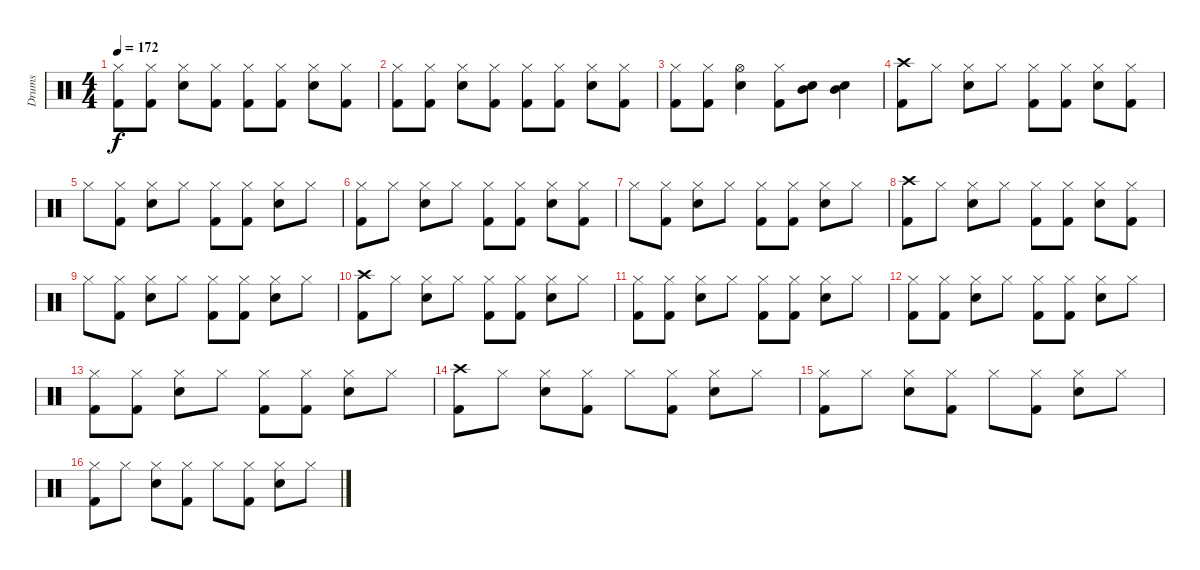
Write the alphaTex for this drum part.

\track ("Drums" "Drums") {instrument percussion}
\staff {score}
\articulation defaults
\ts (4 4)
\tempo 172
\clef neutral
\ks c
("Hi-Hat (closed)" "Kick (hit) 2").8{dy f} ("Hi-Hat (closed)" "Kick (hit) 2").8 ("Hi-Hat (closed)" "Electric Snare (hit)").8 ("Hi-Hat (closed)" "Kick (hit) 2").8 ("Hi-Hat (closed)" "Kick (hit) 2").8 ("Hi-Hat (closed)" "Kick (hit) 2").8 ("Hi-Hat (closed)" "Electric Snare (hit)").8 ("Hi-Hat (closed)" "Kick (hit) 2").8 |
("Hi-Hat (closed)" "Kick (hit) 2").8 ("Hi-Hat (closed)" "Kick (hit) 2").8 ("Hi-Hat (closed)" "Electric Snare (hit)").8 ("Hi-Hat (closed)" "Kick (hit) 2").8 ("Hi-Hat (closed)" "Kick (hit) 2").8 ("Hi-Hat (closed)" "Kick (hit) 2").8 ("Hi-Hat (closed)" "Electric Snare (hit)").8 ("Hi-Hat (closed)" "Kick (hit) 2").8 |
("Hi-Hat (closed)" "Kick (hit) 2").8 ("Hi-Hat (closed)" "Kick (hit) 2").8 ("Hi-Hat (open)" "Electric Snare (hit)").4 ("Hi-Hat (closed)" "Kick (hit) 2").8 ("Mid Tom (hit)" "Electric Snare (hit)").8 ("Mid Tom (hit)" "Electric Snare (hit)").4 |
("Crash high (hit)" "Kick (hit) 2").8 "Hi-Hat (closed)".8 ("Hi-Hat (closed)" "Electric Snare (hit)").8 "Hi-Hat (closed)".8 ("Hi-Hat (closed)" "Kick (hit) 2").8 ("Hi-Hat (closed)" "Kick (hit) 2").8 ("Hi-Hat (closed)" "Electric Snare (hit)").8 ("Hi-Hat (closed)" "Kick (hit) 2").8 |
"Hi-Hat (closed)".8 ("Hi-Hat (closed)" "Kick (hit) 2").8 ("Hi-Hat (closed)" "Electric Snare (hit)").8 "Hi-Hat (closed)".8 ("Hi-Hat (closed)" "Kick (hit) 2").8 ("Hi-Hat (closed)" "Kick (hit) 2").8 ("Hi-Hat (closed)" "Electric Snare (hit)").8 "Hi-Hat (closed)".8 |
("Hi-Hat (closed)" "Kick (hit) 2").8 "Hi-Hat (closed)".8 ("Hi-Hat (closed)" "Electric Snare (hit)").8 "Hi-Hat (closed)".8 ("Hi-Hat (closed)" "Kick (hit) 2").8 ("Hi-Hat (closed)" "Kick (hit) 2").8 ("Hi-Hat (closed)" "Electric Snare (hit)").8 ("Hi-Hat (closed)" "Kick (hit) 2").8 |
"Hi-Hat (closed)".8 ("Hi-Hat (closed)" "Kick (hit) 2").8 ("Hi-Hat (closed)" "Electric Snare (hit)").8 "Hi-Hat (closed)".8 ("Hi-Hat (closed)" "Kick (hit) 2").8 ("Hi-Hat (closed)" "Kick (hit) 2").8 ("Hi-Hat (closed)" "Electric Snare (hit)").8 "Hi-Hat (closed)".8 |
("Crash high (hit)" "Kick (hit) 2").8 "Hi-Hat (closed)".8 ("Hi-Hat (closed)" "Electric Snare (hit)").8 "Hi-Hat (closed)".8 ("Hi-Hat (closed)" "Kick (hit) 2").8 ("Hi-Hat (closed)" "Kick (hit) 2").8 ("Hi-Hat (closed)" "Electric Snare (hit)").8 ("Hi-Hat (closed)" "Kick (hit) 2").8 |
"Hi-Hat (closed)".8 ("Hi-Hat (closed)" "Kick (hit) 2").8 ("Hi-Hat (closed)" "Electric Snare (hit)").8 "Hi-Hat (closed)".8 ("Hi-Hat (closed)" "Kick (hit) 2").8 ("Hi-Hat (closed)" "Kick (hit) 2").8 ("Hi-Hat (closed)" "Electric Snare (hit)").8 "Hi-Hat (closed)".8 |
("Crash high (hit)" "Kick (hit) 2").8 "Hi-Hat (closed)".8 ("Hi-Hat (closed)" "Electric Snare (hit)").8 "Hi-Hat (closed)".8 ("Hi-Hat (closed)" "Kick (hit) 2").8 ("Hi-Hat (closed)" "Kick (hit) 2").8 ("Hi-Hat (closed)" "Electric Snare (hit)").8 "Hi-Hat (closed)".8 |
("Hi-Hat (closed)" "Kick (hit) 2").8 ("Hi-Hat (closed)" "Kick (hit) 2").8 ("Hi-Hat (closed)" "Electric Snare (hit)").8 "Hi-Hat (closed)".8 ("Hi-Hat (closed)" "Kick (hit) 2").8 ("Hi-Hat (closed)" "Kick (hit) 2").8 ("Hi-Hat (closed)" "Electric Snare (hit)").8 "Hi-Hat (closed)".8 |
("Hi-Hat (closed)" "Kick (hit) 2").8 ("Hi-Hat (closed)" "Kick (hit) 2").8 ("Hi-Hat (closed)" "Electric Snare (hit)").8 "Hi-Hat (closed)".8 ("Hi-Hat (closed)" "Kick (hit) 2").8 ("Hi-Hat (closed)" "Kick (hit) 2").8 ("Hi-Hat (closed)" "Electric Snare (hit)").8 "Hi-Hat (closed)".8 |
("Hi-Hat (closed)" "Kick (hit) 2").8 ("Hi-Hat (closed)" "Kick (hit) 2").8 ("Hi-Hat (closed)" "Electric Snare (hit)").8 "Hi-Hat (closed)".8 ("Hi-Hat (closed)" "Kick (hit) 2").8 ("Hi-Hat (closed)" "Kick (hit) 2").8 ("Hi-Hat (closed)" "Electric Snare (hit)").8 "Hi-Hat (closed)".8 |
("Crash high (hit)" "Kick (hit) 2").8 "Hi-Hat (closed)".8 ("Hi-Hat (closed)" "Electric Snare (hit)").8 ("Hi-Hat (closed)" "Kick (hit) 2").8 "Hi-Hat (closed)".8 ("Hi-Hat (closed)" "Kick (hit) 2").8 ("Hi-Hat (closed)" "Electric Snare (hit)").8 "Hi-Hat (closed)".8 |
("Hi-Hat (closed)" "Kick (hit) 2").8 "Hi-Hat (closed)".8 ("Hi-Hat (closed)" "Electric Snare (hit)").8 ("Hi-Hat (closed)" "Kick (hit) 2").8 "Hi-Hat (closed)".8 ("Hi-Hat (closed)" "Kick (hit) 2").8 ("Hi-Hat (closed)" "Electric Snare (hit)").8 "Hi-Hat (closed)".8 |
("Hi-Hat (closed)" "Kick (hit) 2").8 "Hi-Hat (closed)".8 ("Hi-Hat (closed)" "Electric Snare (hit)").8 ("Hi-Hat (closed)" "Kick (hit) 2").8 "Hi-Hat (closed)".8 ("Hi-Hat (closed)" "Kick (hit) 2").8 ("Hi-Hat (closed)" "Electric Snare (hit)").8 "Hi-Hat (closed)".8
